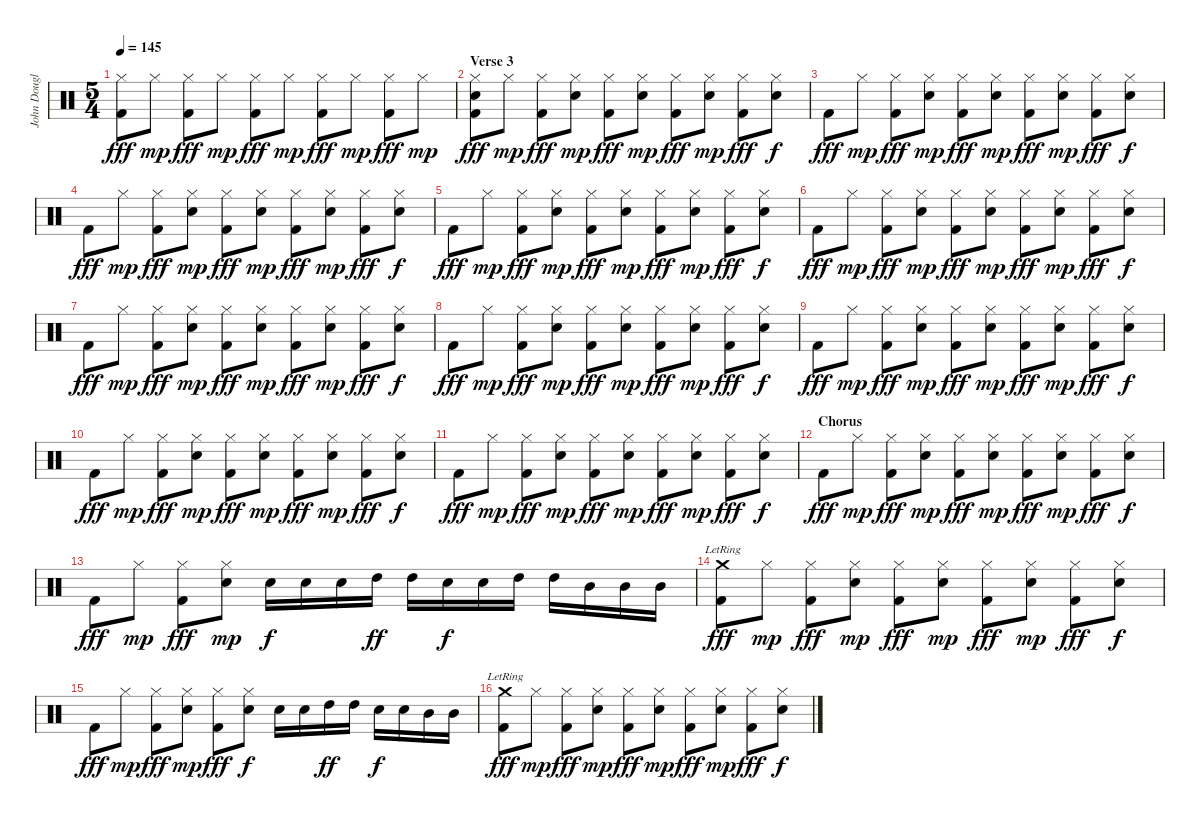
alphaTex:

\track ("John Douglas (Drums)" "John Dougl") {instrument percussion}
\staff {score}
\articulation defaults
\ts (5 4)
\tempo 145
\clef neutral
\ks c
("Hi-Hat (closed)" "Kick (hit) 2").8{dy fff} "Hi-Hat (closed)".8{dy mp} ("Hi-Hat (closed)" "Kick (hit) 2").8{dy fff} "Hi-Hat (closed)".8{dy mp} ("Hi-Hat (closed)" "Kick (hit) 2").8{dy fff} "Hi-Hat (closed)".8{dy mp} ("Hi-Hat (closed)" "Kick (hit) 2").8{dy fff} "Hi-Hat (closed)".8{dy mp} ("Hi-Hat (closed)" "Kick (hit) 2").8{dy fff} "Hi-Hat (closed)".8{dy mp} |
\section ("" "Verse 3")
("Hi-Hat (closed)" "Snare (hit) 2" "Kick (hit) 2").8{dy fff} "Hi-Hat (closed)".8{dy mp} ("Hi-Hat (closed)" "Kick (hit) 2").8{dy fff} ("Hi-Hat (closed)" "Snare (hit) 2").8{dy mp} ("Hi-Hat (closed)" "Kick (hit) 2").8{dy fff} ("Hi-Hat (closed)" "Snare (hit) 2").8{dy mp} ("Hi-Hat (closed)" "Kick (hit) 2").8{dy fff} ("Hi-Hat (closed)" "Snare (hit) 2").8{dy mp} ("Hi-Hat (closed)" "Kick (hit) 2").8{dy fff} ("Hi-Hat (closed)" "Snare (hit) 2").8{dy f} |
"Kick (hit) 2".8{dy fff} "Hi-Hat (closed)".8{dy mp} ("Hi-Hat (closed)" "Kick (hit) 2").8{dy fff} ("Hi-Hat (closed)" "Snare (hit) 2").8{dy mp} ("Hi-Hat (closed)" "Kick (hit) 2").8{dy fff} ("Hi-Hat (closed)" "Snare (hit) 2").8{dy mp} ("Hi-Hat (closed)" "Kick (hit) 2").8{dy fff} ("Hi-Hat (closed)" "Snare (hit) 2").8{dy mp} ("Hi-Hat (closed)" "Kick (hit) 2").8{dy fff} ("Hi-Hat (closed)" "Snare (hit) 2").8{dy f} |
"Kick (hit) 2".8{dy fff} "Hi-Hat (closed)".8{dy mp} ("Hi-Hat (closed)" "Kick (hit) 2").8{dy fff} ("Hi-Hat (closed)" "Snare (hit) 2").8{dy mp} ("Hi-Hat (closed)" "Kick (hit) 2").8{dy fff} ("Hi-Hat (closed)" "Snare (hit) 2").8{dy mp} ("Hi-Hat (closed)" "Kick (hit) 2").8{dy fff} ("Hi-Hat (closed)" "Snare (hit) 2").8{dy mp} ("Hi-Hat (closed)" "Kick (hit) 2").8{dy fff} ("Hi-Hat (closed)" "Snare (hit) 2").8{dy f} |
"Kick (hit) 2".8{dy fff} "Hi-Hat (closed)".8{dy mp} ("Hi-Hat (closed)" "Kick (hit) 2").8{dy fff} ("Hi-Hat (closed)" "Snare (hit) 2").8{dy mp} ("Hi-Hat (closed)" "Kick (hit) 2").8{dy fff} ("Hi-Hat (closed)" "Snare (hit) 2").8{dy mp} ("Hi-Hat (closed)" "Kick (hit) 2").8{dy fff} ("Hi-Hat (closed)" "Snare (hit) 2").8{dy mp} ("Hi-Hat (closed)" "Kick (hit) 2").8{dy fff} ("Hi-Hat (closed)" "Snare (hit) 2").8{dy f} |
"Kick (hit) 2".8{dy fff} "Hi-Hat (closed)".8{dy mp} ("Hi-Hat (closed)" "Kick (hit) 2").8{dy fff} ("Hi-Hat (closed)" "Snare (hit) 2").8{dy mp} ("Hi-Hat (closed)" "Kick (hit) 2").8{dy fff} ("Hi-Hat (closed)" "Snare (hit) 2").8{dy mp} ("Hi-Hat (closed)" "Kick (hit) 2").8{dy fff} ("Hi-Hat (closed)" "Snare (hit) 2").8{dy mp} ("Hi-Hat (closed)" "Kick (hit) 2").8{dy fff} ("Hi-Hat (closed)" "Snare (hit) 2").8{dy f} |
"Kick (hit) 2".8{dy fff} "Hi-Hat (closed)".8{dy mp} ("Hi-Hat (closed)" "Kick (hit) 2").8{dy fff} ("Hi-Hat (closed)" "Snare (hit) 2").8{dy mp} ("Hi-Hat (closed)" "Kick (hit) 2").8{dy fff} ("Hi-Hat (closed)" "Snare (hit) 2").8{dy mp} ("Hi-Hat (closed)" "Kick (hit) 2").8{dy fff} ("Hi-Hat (closed)" "Snare (hit) 2").8{dy mp} ("Hi-Hat (closed)" "Kick (hit) 2").8{dy fff} ("Hi-Hat (closed)" "Snare (hit) 2").8{dy f} |
"Kick (hit) 2".8{dy fff} "Hi-Hat (closed)".8{dy mp} ("Hi-Hat (closed)" "Kick (hit) 2").8{dy fff} ("Hi-Hat (closed)" "Snare (hit) 2").8{dy mp} ("Hi-Hat (closed)" "Kick (hit) 2").8{dy fff} ("Hi-Hat (closed)" "Snare (hit) 2").8{dy mp} ("Hi-Hat (closed)" "Kick (hit) 2").8{dy fff} ("Hi-Hat (closed)" "Snare (hit) 2").8{dy mp} ("Hi-Hat (closed)" "Kick (hit) 2").8{dy fff} ("Hi-Hat (closed)" "Snare (hit) 2").8{dy f} |
"Kick (hit) 2".8{dy fff} "Hi-Hat (closed)".8{dy mp} ("Hi-Hat (closed)" "Kick (hit) 2").8{dy fff} ("Hi-Hat (closed)" "Snare (hit) 2").8{dy mp} ("Hi-Hat (closed)" "Kick (hit) 2").8{dy fff} ("Hi-Hat (closed)" "Snare (hit) 2").8{dy mp} ("Hi-Hat (closed)" "Kick (hit) 2").8{dy fff} ("Hi-Hat (closed)" "Snare (hit) 2").8{dy mp} ("Hi-Hat (closed)" "Kick (hit) 2").8{dy fff} ("Hi-Hat (closed)" "Snare (hit) 2").8{dy f} |
"Kick (hit) 2".8{dy fff} "Hi-Hat (closed)".8{dy mp} ("Hi-Hat (closed)" "Kick (hit) 2").8{dy fff} ("Hi-Hat (closed)" "Snare (hit) 2").8{dy mp} ("Hi-Hat (closed)" "Kick (hit) 2").8{dy fff} ("Hi-Hat (closed)" "Snare (hit) 2").8{dy mp} ("Hi-Hat (closed)" "Kick (hit) 2").8{dy fff} ("Hi-Hat (closed)" "Snare (hit) 2").8{dy mp} ("Hi-Hat (closed)" "Kick (hit) 2").8{dy fff} ("Hi-Hat (closed)" "Snare (hit) 2").8{dy f} |
"Kick (hit) 2".8{dy fff} "Hi-Hat (closed)".8{dy mp} ("Hi-Hat (closed)" "Kick (hit) 2").8{dy fff} ("Hi-Hat (closed)" "Snare (hit) 2").8{dy mp} ("Hi-Hat (closed)" "Kick (hit) 2").8{dy fff} ("Hi-Hat (closed)" "Snare (hit) 2").8{dy mp} ("Hi-Hat (closed)" "Kick (hit) 2").8{dy fff} ("Hi-Hat (closed)" "Snare (hit) 2").8{dy mp} ("Hi-Hat (closed)" "Kick (hit) 2").8{dy fff} ("Hi-Hat (closed)" "Snare (hit) 2").8{dy f} |
\section ("" "Chorus")
"Kick (hit) 2".8{dy fff} "Hi-Hat (closed)".8{dy mp} ("Hi-Hat (closed)" "Kick (hit) 2").8{dy fff} ("Hi-Hat (closed)" "Snare (hit) 2").8{dy mp} ("Hi-Hat (closed)" "Kick (hit) 2").8{dy fff} ("Hi-Hat (closed)" "Snare (hit) 2").8{dy mp} ("Hi-Hat (closed)" "Kick (hit) 2").8{dy fff} ("Hi-Hat (closed)" "Snare (hit) 2").8{dy mp} ("Hi-Hat (closed)" "Kick (hit) 2").8{dy fff} ("Hi-Hat (closed)" "Snare (hit) 2").8{dy f} |
"Kick (hit) 2".8{dy fff} "Hi-Hat (closed)".8{dy mp} ("Hi-Hat (closed)" "Kick (hit) 2").8{dy fff} ("Hi-Hat (closed)" "Snare (hit) 2").8{dy mp} "Snare (hit) 2".16{dy f} "Snare (hit) 2".16 "Snare (hit) 2".16 "High Tom (hit)".16{dy ff} "High Tom (hit)".16 "Snare (hit) 2".16{dy f} "Snare (hit) 2".16 "High Tom (hit)".16 "High Tom (hit)".16 "Mid Tom (hit)".16 "Mid Tom (hit)".16 "Mid Tom (hit)".16 |
("Crash medium (hit)"{lr} "Kick (hit) 2").8{dy fff} "Hi-Hat (closed)".8{dy mp} ("Hi-Hat (closed)" "Kick (hit) 2").8{dy fff} ("Hi-Hat (closed)" "Snare (hit) 2").8{dy mp} ("Hi-Hat (closed)" "Kick (hit) 2").8{dy fff} ("Hi-Hat (closed)" "Snare (hit) 2").8{dy mp} ("Hi-Hat (closed)" "Kick (hit) 2").8{dy fff} ("Hi-Hat (closed)" "Snare (hit) 2").8{dy mp} ("Hi-Hat (closed)" "Kick (hit) 2").8{dy fff} ("Hi-Hat (closed)" "Snare (hit) 2").8{dy f} |
"Kick (hit) 2".8{dy fff} "Hi-Hat (closed)".8{dy mp} ("Hi-Hat (closed)" "Kick (hit) 2").8{dy fff} ("Hi-Hat (closed)" "Snare (hit) 2").8{dy mp} ("Hi-Hat (closed)" "Kick (hit) 2").8{dy fff} ("Hi-Hat (closed)" "Snare (hit) 2").8{dy f} "Snare (hit) 2".16 "Snare (hit) 2".16 "High Tom (hit)".16{dy ff} "High Tom (hit)".16 "Snare (hit) 2".16{dy f} "Snare (hit) 2".16 "Mid Tom (hit)".16 "Mid Tom (hit)".16 |
("Crash medium (hit)"{lr} "Kick (hit) 2").8{dy fff} "Hi-Hat (closed)".8{dy mp} ("Hi-Hat (closed)" "Kick (hit) 2").8{dy fff} ("Hi-Hat (closed)" "Snare (hit) 2").8{dy mp} ("Hi-Hat (closed)" "Kick (hit) 2").8{dy fff} ("Hi-Hat (closed)" "Snare (hit) 2").8{dy mp} ("Hi-Hat (closed)" "Kick (hit) 2").8{dy fff} ("Hi-Hat (closed)" "Snare (hit) 2").8{dy mp} ("Hi-Hat (closed)" "Kick (hit) 2").8{dy fff} ("Hi-Hat (closed)" "Snare (hit) 2").8{dy f}
